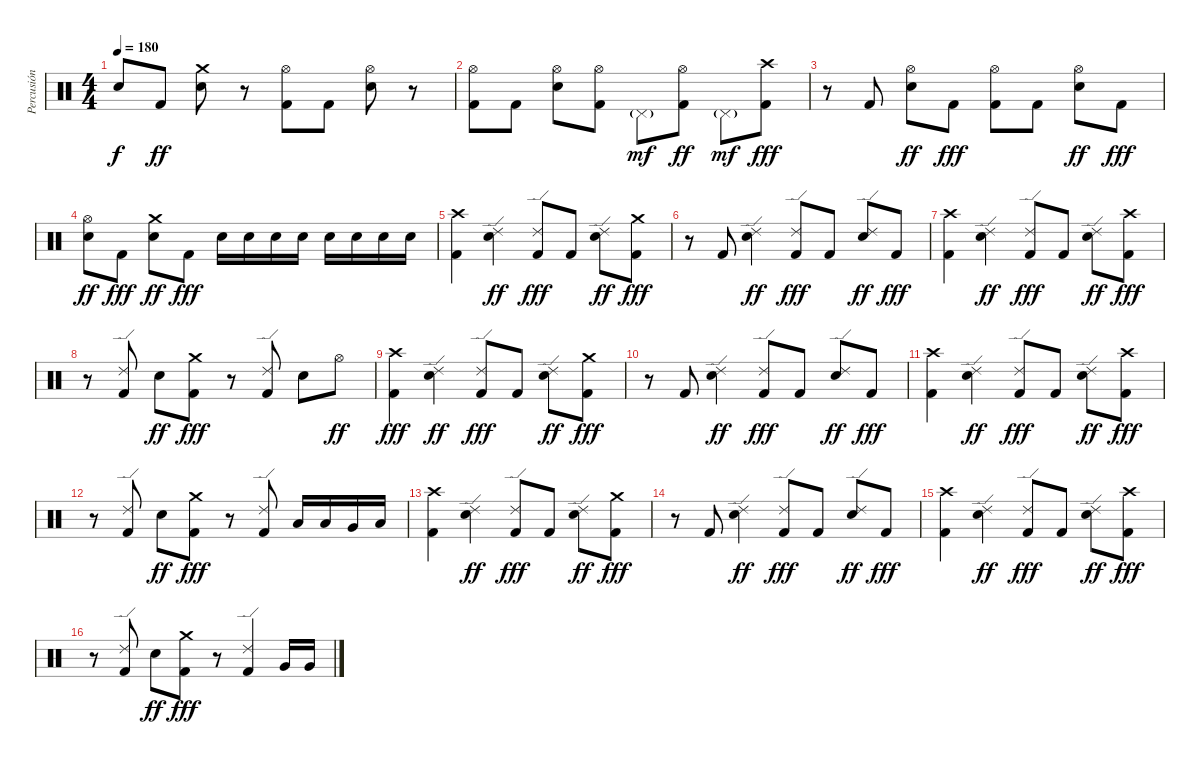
\track ("Percusión" "Percusión") {instrument percussion}
\staff {score}
\articulation defaults
\ts (4 4)
\tempo 180
\clef neutral
\ks c "Snare (hit)"{t}.8{dy f} "Kick (hit) 2".8{dy ff}
("Crash medium (hit)" "Electric Snare (hit)").8 r.8 ("Hi-Hat (open)" "Kick (hit) 2").8 "Kick (hit) 2".8 ("Hi-Hat (open)" "Electric Snare (hit)").8 r.8 |
("Hi-Hat (open)" "Kick (hit) 2").8 "Kick (hit) 2".8 ("Hi-Hat (open)" "Electric Snare (hit)").8 ("Hi-Hat (open)" "Kick (hit) 2").8 "Pedal Hi-Hat (hit)"{g}.8{dy mf} ("Hi-Hat (open)" "Kick (hit) 2").8{dy ff} "Pedal Hi-Hat (hit)"{g}.8{dy mf} ("Crash high (hit)" "Kick (hit) 2").8{dy fff} |
r.8 "Kick (hit) 2".8 ("Hi-Hat (open)" "Electric Snare (hit)").8{dy ff} "Kick (hit) 2".8{dy fff} ("Hi-Hat (open)" "Kick (hit) 2").8 "Kick (hit) 2".8 ("Hi-Hat (open)" "Electric Snare (hit)").8{dy ff} "Kick (hit) 2".8{dy fff} |
("Hi-Hat (open)" "Electric Snare (hit)").8{dy ff} "Kick (hit) 2".8{dy fff} ("Crash medium (hit)" "Electric Snare (hit)").8{dy ff} "Kick (hit) 2".8{dy fff} "Electric Snare (hit)".16 "Electric Snare (hit)".16 "Electric Snare (hit)".16 "Electric Snare (hit)".16 "Electric Snare (hit)".16 "Electric Snare (hit)".16 "Electric Snare (hit)".16 "Electric Snare (hit)".16 |
("Crash high (hit)" "Kick (hit) 2").4 ("Ride (edge) 2" "Electric Snare (hit)").4{dy ff} ("Ride (edge) 2" "Kick (hit) 2").8{dy fff} "Kick (hit) 2".8 ("Ride (edge) 2" "Electric Snare (hit)").8{dy ff} ("Crash medium (hit)" "Kick (hit) 2").8{dy fff} |
r.8 "Kick (hit) 2".8 ("Ride (edge) 2" "Electric Snare (hit)").4{dy ff} ("Ride (edge) 2" "Kick (hit) 2").8{dy fff} "Kick (hit) 2".8 ("Ride (edge) 2" "Electric Snare (hit)").8{dy ff} "Kick (hit) 2".8{dy fff} |
("Crash high (hit)" "Kick (hit) 2").4 ("Ride (edge) 2" "Electric Snare (hit)").4{dy ff} ("Ride (edge) 2" "Kick (hit) 2").8{dy fff} "Kick (hit) 2".8 ("Ride (edge) 2" "Electric Snare (hit)").8{dy ff} ("Crash high (hit)" "Kick (hit) 2").8{dy fff} |
r.8 ("Ride (edge) 2" "Kick (hit) 2").8 "Electric Snare (hit)".8{dy ff} ("Crash medium (hit)" "Kick (hit) 2").8{dy fff} r.8 ("Ride (edge) 2" "Kick (hit) 2").8 "Electric Snare (hit)".8 "Hi-Hat (open)".8{dy ff} |
("Crash high (hit)" "Kick (hit) 2").4{dy fff} ("Ride (edge) 2" "Electric Snare (hit)").4{dy ff} ("Ride (edge) 2" "Kick (hit) 2").8{dy fff} "Kick (hit) 2".8 ("Ride (edge) 2" "Electric Snare (hit)").8{dy ff} ("Crash medium (hit)" "Kick (hit) 2").8{dy fff} |
r.8 "Kick (hit) 2".8 ("Ride (edge) 2" "Electric Snare (hit)").4{dy ff} ("Ride (edge) 2" "Kick (hit) 2").8{dy fff} "Kick (hit) 2".8 ("Ride (edge) 2" "Electric Snare (hit)").8{dy ff} "Kick (hit) 2".8{dy fff} |
("Crash high (hit)" "Kick (hit) 2").4 ("Ride (edge) 2" "Electric Snare (hit)").4{dy ff} ("Ride (edge) 2" "Kick (hit) 2").8{dy fff} "Kick (hit) 2".8 ("Ride (edge) 2" "Electric Snare (hit)").8{dy ff} ("Crash high (hit)" "Kick (hit) 2").8{dy fff} |
r.8 ("Ride (edge) 2" "Kick (hit) 2").8 "Electric Snare (hit)".8{dy ff} ("Crash medium (hit)" "Kick (hit) 2").8{dy fff} r.8 ("Ride (edge) 2" "Kick (hit) 2").8 "Low Tom (hit)".16 "Low Tom (hit)".16 "Very Low Tom (hit)".16 "Low Floor Tom (hit)".16 |
("Crash high (hit)" "Kick (hit) 2").4 ("Ride (edge) 2" "Electric Snare (hit)").4{dy ff} ("Ride (edge) 2" "Kick (hit) 2").8{dy fff} "Kick (hit) 2".8 ("Ride (edge) 2" "Electric Snare (hit)").8{dy ff} ("Crash medium (hit)" "Kick (hit) 2").8{dy fff} |
r.8 "Kick (hit) 2".8 ("Ride (edge) 2" "Electric Snare (hit)").4{dy ff} ("Ride (edge) 2" "Kick (hit) 2").8{dy fff} "Kick (hit) 2".8 ("Ride (edge) 2" "Electric Snare (hit)").8{dy ff} "Kick (hit) 2".8{dy fff} |
("Crash high (hit)" "Kick (hit) 2").4 ("Ride (edge) 2" "Electric Snare (hit)").4{dy ff} ("Ride (edge) 2" "Kick (hit) 2").8{dy fff} "Kick (hit) 2".8 ("Ride (edge) 2" "Electric Snare (hit)").8{dy ff} ("Crash high (hit)" "Kick (hit) 2").8{dy fff} |
r.8 ("Ride (edge) 2" "Kick (hit) 2").8 "Electric Snare (hit)".8{dy ff} ("Crash medium (hit)" "Kick (hit) 2").8{dy fff} r.8 ("Ride (edge) 2" "Kick (hit) 2").4 "Very Low Tom (hit)".16 "Very Low Tom (hit)".16
